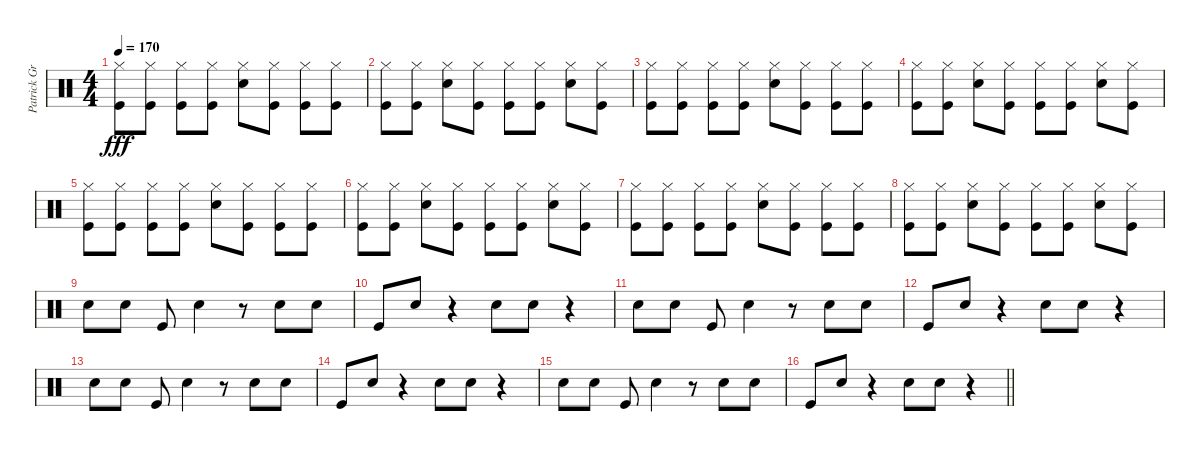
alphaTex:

\track ("Patrick Grün - Drums" "Patrick Gr") {instrument percussion}
\staff {score}
\articulation defaults
\ts (4 4)
\tempo 170
\clef neutral
\ks c
("Kick (hit)" "Hi-Hat (closed)").8{dy fff} ("Kick (hit)" "Hi-Hat (closed)").8 ("Kick (hit)" "Hi-Hat (closed)").8 ("Kick (hit)" "Hi-Hat (closed)").8 ("Snare (hit) 2" "Hi-Hat (closed)").8 ("Kick (hit)" "Hi-Hat (closed)").8 ("Kick (hit)" "Hi-Hat (closed)").8 ("Kick (hit)" "Hi-Hat (closed)").8 |
("Kick (hit)" "Hi-Hat (closed)").8 ("Kick (hit)" "Hi-Hat (closed)").8 ("Snare (hit) 2" "Hi-Hat (closed)").8 ("Kick (hit)" "Hi-Hat (closed)").8 ("Kick (hit)" "Hi-Hat (closed)").8 ("Kick (hit)" "Hi-Hat (closed)").8 ("Snare (hit) 2" "Hi-Hat (closed)").8 ("Kick (hit)" "Hi-Hat (closed)").8 |
("Kick (hit)" "Hi-Hat (closed)").8 ("Kick (hit)" "Hi-Hat (closed)").8 ("Kick (hit)" "Hi-Hat (closed)").8 ("Kick (hit)" "Hi-Hat (closed)").8 ("Snare (hit) 2" "Hi-Hat (closed)").8 ("Kick (hit)" "Hi-Hat (closed)").8 ("Kick (hit)" "Hi-Hat (closed)").8 ("Kick (hit)" "Hi-Hat (closed)").8 |
("Kick (hit)" "Hi-Hat (closed)").8 ("Kick (hit)" "Hi-Hat (closed)").8 ("Snare (hit) 2" "Hi-Hat (closed)").8 ("Kick (hit)" "Hi-Hat (closed)").8 ("Kick (hit)" "Hi-Hat (closed)").8 ("Kick (hit)" "Hi-Hat (closed)").8 ("Snare (hit) 2" "Hi-Hat (closed)").8 ("Kick (hit)" "Hi-Hat (closed)").8 |
("Kick (hit)" "Hi-Hat (closed)").8 ("Kick (hit)" "Hi-Hat (closed)").8 ("Kick (hit)" "Hi-Hat (closed)").8 ("Kick (hit)" "Hi-Hat (closed)").8 ("Snare (hit) 2" "Hi-Hat (closed)").8 ("Kick (hit)" "Hi-Hat (closed)").8 ("Kick (hit)" "Hi-Hat (closed)").8 ("Kick (hit)" "Hi-Hat (closed)").8 |
("Kick (hit)" "Hi-Hat (closed)").8 ("Kick (hit)" "Hi-Hat (closed)").8 ("Snare (hit) 2" "Hi-Hat (closed)").8 ("Kick (hit)" "Hi-Hat (closed)").8 ("Kick (hit)" "Hi-Hat (closed)").8 ("Kick (hit)" "Hi-Hat (closed)").8 ("Snare (hit) 2" "Hi-Hat (closed)").8 ("Kick (hit)" "Hi-Hat (closed)").8 |
("Kick (hit)" "Hi-Hat (closed)").8 ("Kick (hit)" "Hi-Hat (closed)").8 ("Kick (hit)" "Hi-Hat (closed)").8 ("Kick (hit)" "Hi-Hat (closed)").8 ("Snare (hit) 2" "Hi-Hat (closed)").8 ("Kick (hit)" "Hi-Hat (closed)").8 ("Kick (hit)" "Hi-Hat (closed)").8 ("Kick (hit)" "Hi-Hat (closed)").8 |
("Kick (hit)" "Hi-Hat (closed)").8 ("Kick (hit)" "Hi-Hat (closed)").8 ("Snare (hit) 2" "Hi-Hat (closed)").8 ("Kick (hit)" "Hi-Hat (closed)").8 ("Kick (hit)" "Hi-Hat (closed)").8 ("Kick (hit)" "Hi-Hat (closed)").8 ("Snare (hit) 2" "Hi-Hat (closed)").8 ("Kick (hit)" "Hi-Hat (closed)").8 |
"Snare (hit) 2".8 "Snare (hit) 2".8 "Kick (hit)".8 "Snare (hit) 2".4 r.8 "Snare (hit) 2".8 "Snare (hit) 2".8 |
"Kick (hit)".8 "Snare (hit) 2".8 r.4 "Snare (hit) 2".8 "Snare (hit) 2".8 r.4 |
"Snare (hit) 2".8 "Snare (hit) 2".8 "Kick (hit)".8 "Snare (hit) 2".4 r.8 "Snare (hit) 2".8 "Snare (hit) 2".8 |
"Kick (hit)".8 "Snare (hit) 2".8 r.4 "Snare (hit) 2".8 "Snare (hit) 2".8 r.4 |
"Snare (hit) 2".8 "Snare (hit) 2".8 "Kick (hit)".8 "Snare (hit) 2".4 r.8 "Snare (hit) 2".8 "Snare (hit) 2".8 |
"Kick (hit)".8 "Snare (hit) 2".8 r.4 "Snare (hit) 2".8 "Snare (hit) 2".8 r.4 |
"Snare (hit) 2".8 "Snare (hit) 2".8 "Kick (hit)".8 "Snare (hit) 2".4 r.8 "Snare (hit) 2".8 "Snare (hit) 2".8 |
\barLineRight lightlight "Kick (hit)".8 "Snare (hit) 2".8
r.4 "Snare (hit) 2".8 "Snare (hit) 2".8 r.4
